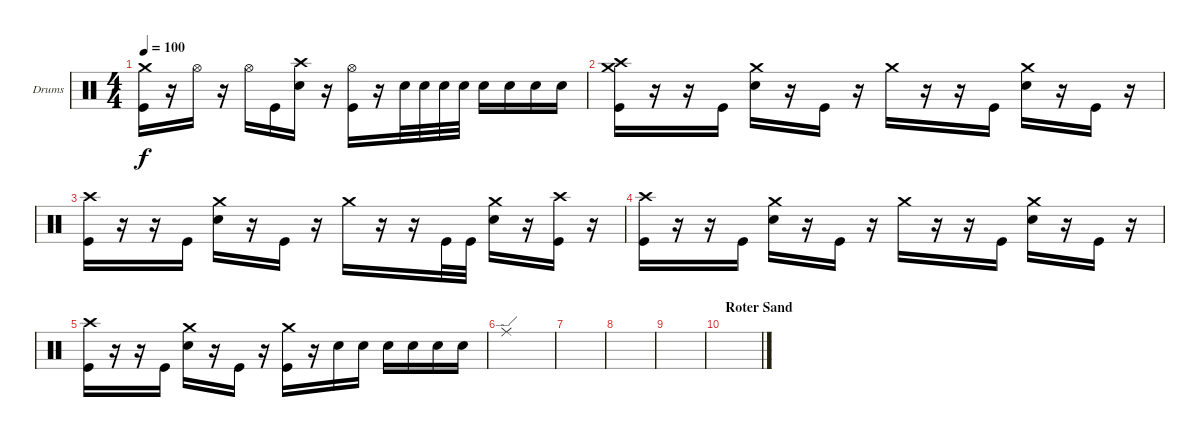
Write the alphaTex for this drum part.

\bracketExtendMode groupsimilarinstruments
\firstSystemTrackNameOrientation horizontal
\otherSystemsTrackNameOrientation horizontal
\track ("Drumkit (Christoph)" "Drums") {instrument percussion}
\staff {score}
\articulation defaults
\ts (4 4)
\tempo 100
\clef neutral
\ks c
("Crash medium (hit)" "Kick (hit)").16{dy f} r.16 "Hi-Hat (open)".16 r.16 "Hi-Hat (open)".16 "Kick (hit)".16 ("Crash high (hit)" "Snare (hit) 2").16 r.16 ("Hi-Hat (open)" "Kick (hit)").16 r.16 "Snare (hit) 2".32 "Snare (hit) 2".32 "Snare (hit) 2".32 "Snare (hit) 2".32 "Snare (hit) 2".16 "Snare (hit) 2".16 "Snare (hit) 2".16 "Snare (hit) 2".16 |
("Crash medium (hit)" "Crash high (hit)" "Kick (hit)").16 r.16 r.16 "Kick (hit)".16 ("Crash medium (hit)" "Snare (hit) 2").16 r.16 "Kick (hit)".16 r.16 "Crash medium (hit)".16 r.16 r.16 "Kick (hit)".16 ("Crash medium (hit)" "Snare (hit) 2").16 r.16 "Kick (hit)".16 r.16 |
("Crash high (hit)" "Kick (hit)").16 r.16 r.16 "Kick (hit)".16 ("Crash medium (hit)" "Snare (hit) 2").16 r.16 "Kick (hit)".16 r.16 "Crash medium (hit)".16 r.16 r.16 "Kick (hit)".32 "Kick (hit)".32 ("Crash medium (hit)" "Snare (hit) 2").16 r.16 ("Crash high (hit)" "Kick (hit)").16 r.16 |
("Crash high (hit)" "Kick (hit)").16 r.16 r.16 "Kick (hit)".16 ("Crash medium (hit)" "Snare (hit) 2").16 r.16 "Kick (hit)".16 r.16 "Crash medium (hit)".16 r.16 r.16 "Kick (hit)".16 ("Crash medium (hit)" "Snare (hit) 2").16 r.16 "Kick (hit)".16 r.16 |
("Crash high (hit)" "Kick (hit)").16 r.16 r.16 "Kick (hit)".16 ("Crash medium (hit)" "Snare (hit) 2").16 r.16 "Kick (hit)".16 r.16 ("Crash medium (hit)" "Kick (hit)").16 r.16 "Snare (hit) 2".16 "Snare (hit) 2".16 "Snare (hit) 2".16 "Snare (hit) 2".16 "Snare (hit) 2".16 "Snare (hit) 2".16 |
"Ride (edge)".1 |
|
|
|
\section ("" "Roter Sand")
